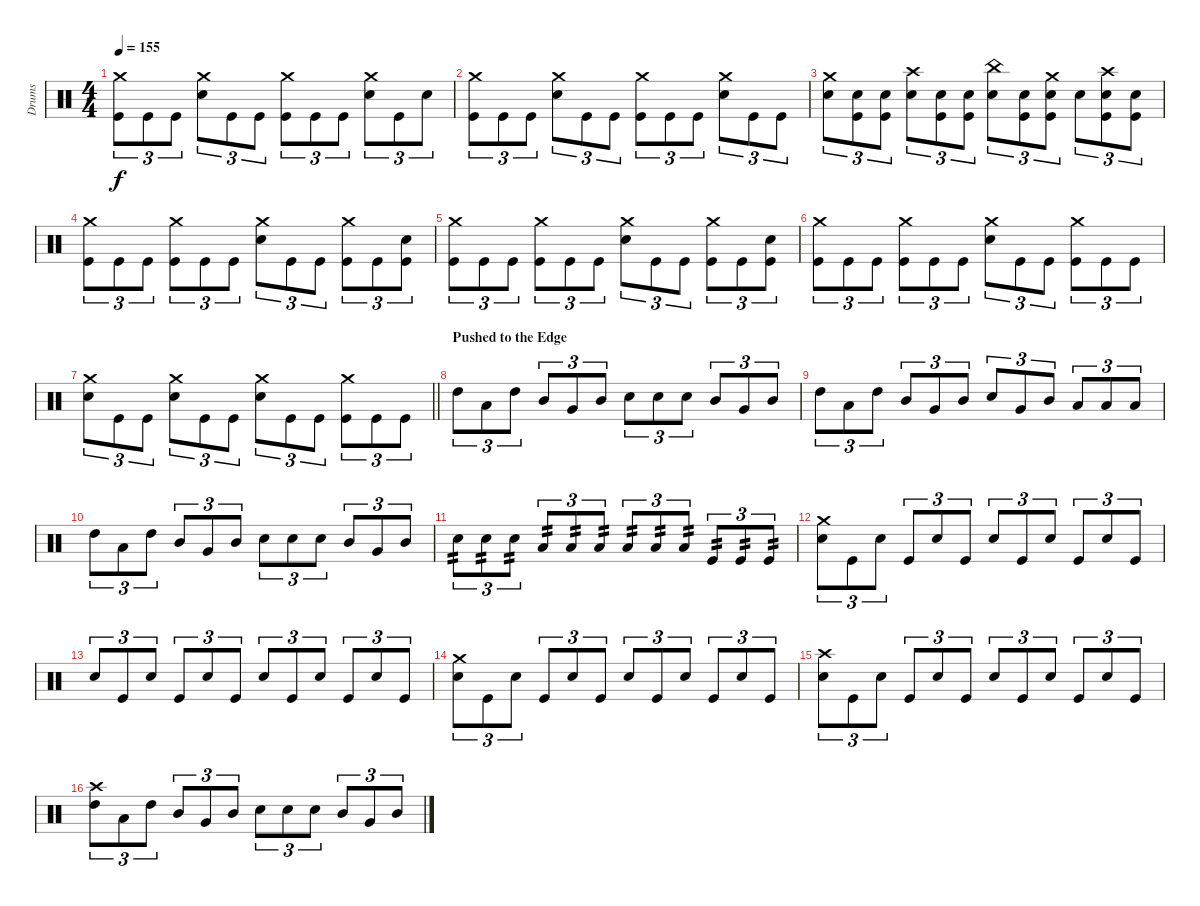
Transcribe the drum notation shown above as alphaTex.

\track ("Drums" "Drums") {instrument percussion}
\staff {score}
\articulation defaults
\ts (4 4)
\tempo 155
\clef neutral
\ks c
("Crash medium (hit)" "Kick (hit)").8{tu (3 2) dy f} "Kick (hit)".8{tu (3 2)} "Kick (hit)".8{tu (3 2)} ("Crash medium (hit)" "Electric Snare (hit)").8{tu (3 2)} "Kick (hit)".8{tu (3 2)} "Kick (hit)".8{tu (3 2)} ("Crash medium (hit)" "Kick (hit)").8{tu (3 2)} "Kick (hit)".8{tu (3 2)} "Kick (hit)".8{tu (3 2)} ("Crash medium (hit)" "Electric Snare (hit)").8{tu (3 2)} "Kick (hit)".8{tu (3 2)} "Electric Snare (hit)".8{tu (3 2)} |
("Crash medium (hit)" "Kick (hit)").8{tu (3 2)} "Kick (hit)".8{tu (3 2)} "Kick (hit)".8{tu (3 2)} ("Crash medium (hit)" "Electric Snare (hit)").8{tu (3 2)} "Kick (hit)".8{tu (3 2)} "Kick (hit)".8{tu (3 2)} ("Crash medium (hit)" "Kick (hit)").8{tu (3 2)} "Kick (hit)".8{tu (3 2)} "Kick (hit)".8{tu (3 2)} ("Crash medium (hit)" "Electric Snare (hit)").8{tu (3 2)} "Kick (hit)".8{tu (3 2)} "Kick (hit)".8{tu (3 2)} |
("Crash medium (hit)" "Electric Snare (hit)").8{tu (3 2)} ("Electric Snare (hit)" "Kick (hit)").8{tu (3 2)} ("Electric Snare (hit)" "Kick (hit)").8{tu (3 2)} ("Crash high (hit)" "Electric Snare (hit)").8{tu (3 2)} ("Electric Snare (hit)" "Kick (hit)").8{tu (3 2)} ("Electric Snare (hit)" "Kick (hit)").8{tu (3 2)} ("China (hit)" "Electric Snare (hit)").8{tu (3 2)} ("Electric Snare (hit)" "Kick (hit)").8{tu (3 2)} ("Crash medium (hit)" "Electric Snare (hit)" "Kick (hit)").8{tu (3 2)} "Electric Snare (hit)".8{tu (3 2)} ("Crash high (hit)" "Electric Snare (hit)" "Kick (hit)").8{tu (3 2)} ("Electric Snare (hit)" "Kick (hit)").8{tu (3 2)} |
("Crash medium (hit)" "Kick (hit)").8{tu (3 2)} "Kick (hit)".8{tu (3 2)} "Kick (hit)".8{tu (3 2)} ("Crash medium (hit)" "Kick (hit)").8{tu (3 2)} "Kick (hit)".8{tu (3 2)} "Kick (hit)".8{tu (3 2)} ("Crash medium (hit)" "Electric Snare (hit)").8{tu (3 2)} "Kick (hit)".8{tu (3 2)} "Kick (hit)".8{tu (3 2)} ("Crash medium (hit)" "Kick (hit)").8{tu (3 2)} "Kick (hit)".8{tu (3 2)} ("Electric Snare (hit)" "Kick (hit)").8{tu (3 2)} |
("Crash medium (hit)" "Kick (hit)").8{tu (3 2)} "Kick (hit)".8{tu (3 2)} "Kick (hit)".8{tu (3 2)} ("Crash medium (hit)" "Kick (hit)").8{tu (3 2)} "Kick (hit)".8{tu (3 2)} "Kick (hit)".8{tu (3 2)} ("Crash medium (hit)" "Electric Snare (hit)").8{tu (3 2)} "Kick (hit)".8{tu (3 2)} "Kick (hit)".8{tu (3 2)} ("Crash medium (hit)" "Kick (hit)").8{tu (3 2)} "Kick (hit)".8{tu (3 2)} ("Electric Snare (hit)" "Kick (hit)").8{tu (3 2)} |
("Crash medium (hit)" "Kick (hit)").8{tu (3 2)} "Kick (hit)".8{tu (3 2)} "Kick (hit)".8{tu (3 2)} ("Crash medium (hit)" "Kick (hit)").8{tu (3 2)} "Kick (hit)".8{tu (3 2)} "Kick (hit)".8{tu (3 2)} ("Crash medium (hit)" "Electric Snare (hit)").8{tu (3 2)} "Kick (hit)".8{tu (3 2)} "Kick (hit)".8{tu (3 2)} ("Crash medium (hit)" "Kick (hit)").8{tu (3 2)} "Kick (hit)".8{tu (3 2)} "Kick (hit)".8{tu (3 2)} |
\barLineRight lightlight
("Crash medium (hit)" "Electric Snare (hit)").8{tu (3 2)} "Kick (hit)".8{tu (3 2)} "Kick (hit)".8{tu (3 2)} ("Crash medium (hit)" "Electric Snare (hit)").8{tu (3 2)} "Kick (hit)".8{tu (3 2)} "Kick (hit)".8{tu (3 2)} ("Crash medium (hit)" "Electric Snare (hit)").8{tu (3 2)} "Kick (hit)".8{tu (3 2)} "Kick (hit)".8{tu (3 2)} ("Crash medium (hit)" "Kick (hit)").8{tu (3 2)} "Kick (hit)".8{tu (3 2)} "Kick (hit)".8{tu (3 2)} |
\section ("" "Pushed to the Edge")
"High Tom (hit)".8{tu (3 2)} "Low Tom (hit)".8{tu (3 2)} "High Tom (hit)".8{tu (3 2)} "Mid Tom (hit)".8{tu (3 2)} "Very Low Tom (hit)".8{tu (3 2)} "Mid Tom (hit)".8{tu (3 2)} "Electric Snare (hit)".8{tu (3 2)} "Electric Snare (hit)".8{tu (3 2)} "Electric Snare (hit)".8{tu (3 2)} "Mid Tom (hit)".8{tu (3 2)} "Very Low Tom (hit)".8{tu (3 2)} "Mid Tom (hit)".8{tu (3 2)} |
"High Tom (hit)".8{tu (3 2)} "Low Tom (hit)".8{tu (3 2)} "High Tom (hit)".8{tu (3 2)} "Mid Tom (hit)".8{tu (3 2)} "Very Low Tom (hit)".8{tu (3 2)} "Mid Tom (hit)".8{tu (3 2)} "Electric Snare (hit)".8{tu (3 2)} "Very Low Tom (hit)".8{tu (3 2)} "Mid Tom (hit)".8{tu (3 2)} "Low Tom (hit)".8{tu (3 2)} "Low Floor Tom (hit)".8{tu (3 2)} "Low Tom (hit)".8{tu (3 2)} |
"High Tom (hit)".8{tu (3 2)} "Low Tom (hit)".8{tu (3 2)} "High Tom (hit)".8{tu (3 2)} "Mid Tom (hit)".8{tu (3 2)} "Very Low Tom (hit)".8{tu (3 2)} "Mid Tom (hit)".8{tu (3 2)} "Electric Snare (hit)".8{tu (3 2)} "Electric Snare (hit)".8{tu (3 2)} "Electric Snare (hit)".8{tu (3 2)} "Mid Tom (hit)".8{tu (3 2)} "Very Low Tom (hit)".8{tu (3 2)} "Mid Tom (hit)".8{tu (3 2)} |
"Electric Snare (hit)".8{tu (3 2) tp 2} "Electric Snare (hit)".8{tu (3 2) tp 2} "Electric Snare (hit)".8{tu (3 2) tp 2} "Low Tom (hit)".8{tu (3 2) tp 2} "Low Tom (hit)".8{tu (3 2) tp 2} "Low Tom (hit)".8{tu (3 2) tp 2} "Low Floor Tom (hit)".8{tu (3 2) tp 2} "Low Floor Tom (hit)".8{tu (3 2) tp 2} "Low Floor Tom (hit)".8{tu (3 2) tp 2} "Kick (hit)".8{tu (3 2) tp 2} "Kick (hit)".8{tu (3 2) tp 2} "Kick (hit)".8{tu (3 2) tp 2} |
("Crash medium (hit)" "Electric Snare (hit)").8{tu (3 2)} "Kick (hit)".8{tu (3 2)} "Electric Snare (hit)".8{tu (3 2)} "Kick (hit)".8{tu (3 2)} "Electric Snare (hit)".8{tu (3 2)} "Kick (hit)".8{tu (3 2)} "Electric Snare (hit)".8{tu (3 2)} "Kick (hit)".8{tu (3 2)} "Electric Snare (hit)".8{tu (3 2)} "Kick (hit)".8{tu (3 2)} "Electric Snare (hit)".8{tu (3 2)} "Kick (hit)".8{tu (3 2)} |
"Electric Snare (hit)".8{tu (3 2)} "Kick (hit)".8{tu (3 2)} "Electric Snare (hit)".8{tu (3 2)} "Kick (hit)".8{tu (3 2)} "Electric Snare (hit)".8{tu (3 2)} "Kick (hit)".8{tu (3 2)} "Electric Snare (hit)".8{tu (3 2)} "Kick (hit)".8{tu (3 2)} "Electric Snare (hit)".8{tu (3 2)} "Kick (hit)".8{tu (3 2)} "Electric Snare (hit)".8{tu (3 2)} "Kick (hit)".8{tu (3 2)} |
("Crash medium (hit)" "Electric Snare (hit)").8{tu (3 2)} "Kick (hit)".8{tu (3 2)} "Electric Snare (hit)".8{tu (3 2)} "Kick (hit)".8{tu (3 2)} "Electric Snare (hit)".8{tu (3 2)} "Kick (hit)".8{tu (3 2)} "Electric Snare (hit)".8{tu (3 2)} "Kick (hit)".8{tu (3 2)} "Electric Snare (hit)".8{tu (3 2)} "Kick (hit)".8{tu (3 2)} "Electric Snare (hit)".8{tu (3 2)} "Kick (hit)".8{tu (3 2)} |
("Crash high (hit)" "Electric Snare (hit)").8{tu (3 2)} "Kick (hit)".8{tu (3 2)} "Electric Snare (hit)".8{tu (3 2)} "Kick (hit)".8{tu (3 2)} "Electric Snare (hit)".8{tu (3 2)} "Kick (hit)".8{tu (3 2)} "Electric Snare (hit)".8{tu (3 2)} "Kick (hit)".8{tu (3 2)} "Electric Snare (hit)".8{tu (3 2)} "Kick (hit)".8{tu (3 2)} "Electric Snare (hit)".8{tu (3 2)} "Kick (hit)".8{tu (3 2)} |
("Crash high (hit)" "High Tom (hit)").8{tu (3 2)} "Low Tom (hit)".8{tu (3 2)} "High Tom (hit)".8{tu (3 2)} "Mid Tom (hit)".8{tu (3 2)} "Very Low Tom (hit)".8{tu (3 2)} "Mid Tom (hit)".8{tu (3 2)} "Electric Snare (hit)".8{tu (3 2)} "Electric Snare (hit)".8{tu (3 2)} "Electric Snare (hit)".8{tu (3 2)} "Mid Tom (hit)".8{tu (3 2)} "Very Low Tom (hit)".8{tu (3 2)} "Mid Tom (hit)".8{tu (3 2)}
